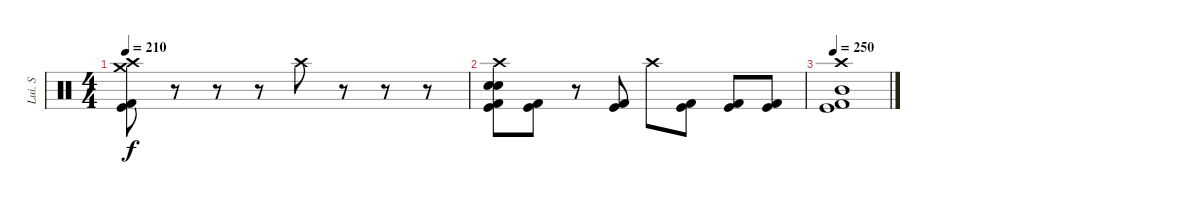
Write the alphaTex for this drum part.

\track ("Lui. S" "Lui. S") {instrument percussion}
\staff {score}
\articulation defaults
\ts (4 4)
\tempo 210
\clef neutral
\ks c
("Crash high (hit)" "Crash medium (hit)" "Kick (hit) 2" "Kick (hit)").8{dy f} r.8 r.8 r.8 "Crash high (hit)".8 r.8 r.8 r.8 |
("Crash high (hit)" "Electric Snare (hit)" "Snare (hit) 2" "Kick (hit) 2" "Kick (hit)").8 ("Kick (hit) 2" "Kick (hit)").8 r.8 ("Kick (hit) 2" "Kick (hit)").8 "Crash high (hit)".8 ("Kick (hit) 2" "Kick (hit)").8 ("Kick (hit) 2" "Kick (hit)").8 ("Kick (hit) 2" "Kick (hit)").8 |
\tempo 250
("Crash high (hit)" "Mid Tom (hit)" "Kick (hit) 2" "Kick (hit)").1
